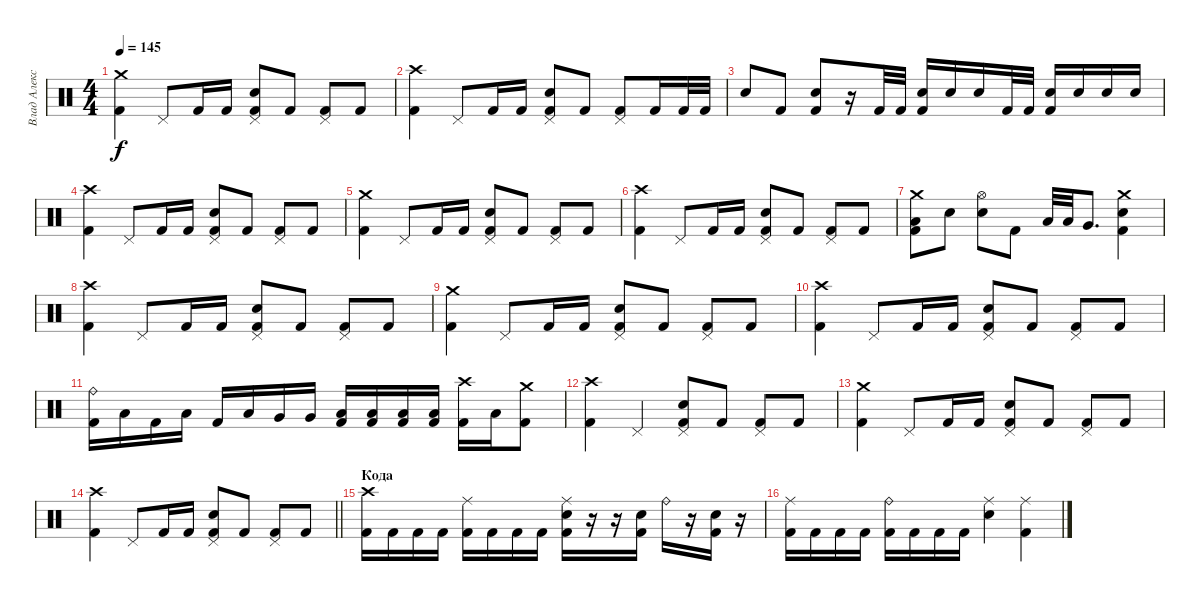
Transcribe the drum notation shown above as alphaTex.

\track ("Влад Алексеенко" "Влад Алекс") {instrument percussion}
\staff {score}
\articulation defaults
\ts (4 4)
\tempo 145
\clef neutral
\ks c
("Crash medium (hit)" "Kick (hit) 2").4{dy f} "Pedal Hi-Hat (hit)".8 "Kick (hit) 2".16 "Kick (hit) 2".16 ("Pedal Hi-Hat (hit)" "Electric Snare (hit)" "Kick (hit) 2").8 "Kick (hit) 2".8 ("Pedal Hi-Hat (hit)" "Kick (hit) 2").8 "Kick (hit) 2".8 |
("Crash high (hit)" "Kick (hit) 2").4 "Pedal Hi-Hat (hit)".8 "Kick (hit) 2".16 "Kick (hit) 2".16 ("Pedal Hi-Hat (hit)" "Electric Snare (hit)" "Kick (hit) 2").8 "Kick (hit) 2".8 ("Pedal Hi-Hat (hit)" "Kick (hit) 2").8 "Kick (hit) 2".16 "Kick (hit) 2".32 "Kick (hit) 2".32 |
"Electric Snare (hit)".8 "Kick (hit) 2".8 ("Electric Snare (hit)" "Kick (hit) 2").8 r.16 "Kick (hit) 2".32 "Kick (hit) 2".32 ("Electric Snare (hit)" "Kick (hit) 2").16 "Electric Snare (hit)".16 "Electric Snare (hit)".16 "Kick (hit) 2".32 "Kick (hit) 2".32 ("Electric Snare (hit)" "Kick (hit) 2").16 "Electric Snare (hit)".16 "Electric Snare (hit)".16 "Electric Snare (hit)".16 |
("Crash high (hit)" "Kick (hit) 2").4 "Pedal Hi-Hat (hit)".8 "Kick (hit) 2".16 "Kick (hit) 2".16 ("Pedal Hi-Hat (hit)" "Electric Snare (hit)" "Kick (hit) 2").8 "Kick (hit) 2".8 ("Pedal Hi-Hat (hit)" "Kick (hit) 2").8 "Kick (hit) 2".8 |
("Crash medium (hit)" "Kick (hit) 2").4 "Pedal Hi-Hat (hit)".8 "Kick (hit) 2".16 "Kick (hit) 2".16 ("Pedal Hi-Hat (hit)" "Electric Snare (hit)" "Kick (hit) 2").8 "Kick (hit) 2".8 ("Pedal Hi-Hat (hit)" "Kick (hit) 2").8 "Kick (hit) 2".8 |
("Crash high (hit)" "Kick (hit) 2").4 "Pedal Hi-Hat (hit)".8 "Kick (hit) 2".16 "Kick (hit) 2".16 ("Pedal Hi-Hat (hit)" "Electric Snare (hit)" "Kick (hit) 2").8 "Kick (hit) 2".8 ("Pedal Hi-Hat (hit)" "Kick (hit) 2").8 "Kick (hit) 2".8 |
("Low Tom (hit)" "Crash medium (hit)" "Kick (hit) 2").8 "Electric Snare (hit)".8 ("Hi-Hat (open)" "Electric Snare (hit)").8 "Kick (hit) 2".8 "Low Tom (hit)".32 "Low Tom (hit)".32 "Very Low Tom (hit)".8{d} ("Crash medium (hit)" "Electric Snare (hit)" "Kick (hit) 2").4 |
("Crash high (hit)" "Kick (hit) 2").4 "Pedal Hi-Hat (hit)".8 "Kick (hit) 2".16 "Kick (hit) 2".16 ("Pedal Hi-Hat (hit)" "Electric Snare (hit)" "Kick (hit) 2").8 "Kick (hit) 2".8 ("Pedal Hi-Hat (hit)" "Kick (hit) 2").8 "Kick (hit) 2".8 |
("Crash medium (hit)" "Kick (hit) 2").4 "Pedal Hi-Hat (hit)".8 "Kick (hit) 2".16 "Kick (hit) 2".16 ("Pedal Hi-Hat (hit)" "Electric Snare (hit)" "Kick (hit) 2").8 "Kick (hit) 2".8 ("Pedal Hi-Hat (hit)" "Kick (hit) 2").8 "Kick (hit) 2".8 |
("Crash high (hit)" "Kick (hit) 2").4 "Pedal Hi-Hat (hit)".8 "Kick (hit) 2".16 "Kick (hit) 2".16 ("Pedal Hi-Hat (hit)" "Electric Snare (hit)" "Kick (hit) 2").8 "Kick (hit) 2".8 ("Pedal Hi-Hat (hit)" "Kick (hit) 2").8 "Kick (hit) 2".8 |
("Ride (bell)" "Kick (hit) 2").16 "Low Floor Tom (hit)".16 "Kick (hit) 2".16 "Low Floor Tom (hit)".16 "Kick (hit) 2".16 "Low Floor Tom (hit)".16 "Very Low Tom (hit)".16 "Very Low Tom (hit)".16 ("Low Tom (hit)" "Kick (hit) 2").16 ("Low Tom (hit)" "Kick (hit) 2").16 ("Low Tom (hit)" "Kick (hit) 2").16 ("Low Tom (hit)" "Kick (hit) 2").16 ("Crash high (hit)" "Kick (hit) 2").16 "Low Floor Tom (hit)".16 ("Crash medium (hit)" "Kick (hit) 2").8 |
("Crash high (hit)" "Kick (hit) 2").4 "Pedal Hi-Hat (hit)".4 ("Pedal Hi-Hat (hit)" "Electric Snare (hit)" "Kick (hit) 2").8 "Kick (hit) 2".8 ("Pedal Hi-Hat (hit)" "Kick (hit) 2").8 "Kick (hit) 2".8 |
("Crash medium (hit)" "Kick (hit) 2").4 "Pedal Hi-Hat (hit)".8 "Kick (hit) 2".16 "Kick (hit) 2".16 ("Pedal Hi-Hat (hit)" "Electric Snare (hit)" "Kick (hit) 2").8 "Kick (hit) 2".8 ("Pedal Hi-Hat (hit)" "Kick (hit) 2").8 "Kick (hit) 2".8 |
\barLineRight lightlight
("Crash high (hit)" "Kick (hit) 2").4 "Pedal Hi-Hat (hit)".8 "Kick (hit) 2".16 "Kick (hit) 2".16 ("Pedal Hi-Hat (hit)" "Electric Snare (hit)" "Kick (hit) 2").8 "Kick (hit) 2".8 ("Pedal Hi-Hat (hit)" "Kick (hit) 2").8 "Kick (hit) 2".8 |
\section ("" "Кода")
("Crash high (hit)" "Kick (hit) 2").16 "Kick (hit) 2".16 "Kick (hit) 2".16 "Kick (hit) 2".16 ("Ride (middle)" "Kick (hit) 2").16 "Kick (hit) 2".16 "Kick (hit) 2".16 "Kick (hit) 2".16 ("Ride (middle)" "Electric Snare (hit)" "Kick (hit) 2").16 r.16 r.16 ("Electric Snare (hit)" "Kick (hit) 2").16 "Ride (bell)".16 r.16 ("Electric Snare (hit)" "Kick (hit) 2").16 r.16 |
("Ride (middle)" "Kick (hit) 2").16 "Kick (hit) 2".16 "Kick (hit) 2".16 "Kick (hit) 2".16 ("Ride (bell)" "Kick (hit) 2").16 "Kick (hit) 2".16 "Kick (hit) 2".16 "Kick (hit) 2".16 ("Ride (middle)" "Electric Snare (hit)").4 ("Ride (middle)" "Kick (hit) 2").4
